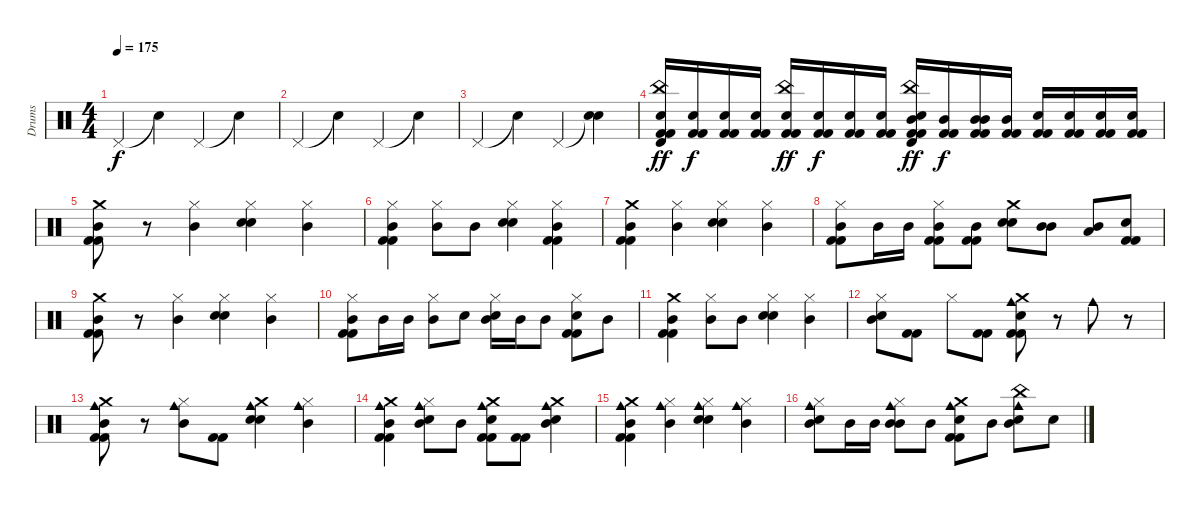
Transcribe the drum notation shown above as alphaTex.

\track ("Drums" "Drums") {instrument percussion}
\staff {score}
\articulation defaults
\ts (4 4)
\tempo 175
\clef neutral
\ks c "Pedal Hi-Hat (hit)".4{dy f} "Snare (hit)"{t}.4 "Pedal Hi-Hat (hit)".4 "Snare (hit)"{t}.4
|
"Pedal Hi-Hat (hit)".4 "Snare (hit)"{t}.4 "Pedal Hi-Hat (hit)".4 "Snare (hit)"{t}.4 |
"Pedal Hi-Hat (hit)".4 "Snare (hit)"{t}.4 "Pedal Hi-Hat (hit)".4 ("Snare (hit)"{t} "Electric Snare (hit)").4 |
("China (hit)" "Timbale high (hit)" "Electric Snare (hit)" "Kick (hit) 2" "Kick (hit) 2").16{dy ff} ("Electric Snare (hit)" "Kick (hit) 2" "Kick (hit) 2").16{dy f} ("Electric Snare (hit)" "Kick (hit) 2" "Kick (hit) 2").16 ("Electric Snare (hit)" "Kick (hit) 2" "Kick (hit) 2").16 ("China (hit)" "Snare (hit) 2" "Kick (hit) 2" "Kick (hit) 2").16{dy ff} ("Snare (hit) 2" "Kick (hit) 2" "Kick (hit) 2").16{dy f} ("Snare (hit) 2" "Kick (hit) 2" "Kick (hit) 2").16 ("Snare (hit) 2" "Kick (hit) 2" "Kick (hit) 2").16 ("China (hit)" "Timbale high (hit)" "Snare (hit) 2" "Mid Tom (hit)" "Kick (hit) 2" "Kick (hit) 2").16{dy ff} ("Mid Tom (hit)" "Kick (hit) 2" "Kick (hit) 2").16{dy f} ("Mid Tom (hit)" "Mid Tom (hit)" "Kick (hit) 2" "Kick (hit) 2").16 ("Mid Tom (hit)" "Kick (hit) 2" "Kick (hit) 2").16 ("Electric Snare (hit)" "Kick (hit) 2" "Kick (hit) 2").16 ("Electric Snare (hit)" "Kick (hit) 2" "Kick (hit) 2").16 ("Electric Snare (hit)" "Kick (hit) 2" "Kick (hit) 2").16 ("Electric Snare (hit)" "Kick (hit) 2" "Kick (hit) 2").16 |
("Crash medium (hit)" "Mid Tom (hit)" "Kick (hit) 2" "Kick (hit) 2").8 r.8 ("Hi-Hat (closed)" "Mid Tom (hit)").4 ("Hi-Hat (closed)" "Electric Snare (hit)" "Snare (hit) 2").4 ("Hi-Hat (closed)" "Mid Tom (hit)").4 |
("Hi-Hat (closed)" "Mid Tom (hit)" "Kick (hit) 2" "Kick (hit) 2").4 ("Hi-Hat (closed)" "Mid Tom (hit)").8 "Mid Tom (hit)".8 ("Hi-Hat (closed)" "Electric Snare (hit)" "Snare (hit) 2").4 ("Hi-Hat (closed)" "Mid Tom (hit)" "Kick (hit) 2" "Kick (hit) 2").4 |
("Crash medium (hit)" "Mid Tom (hit)" "Kick (hit) 2" "Kick (hit) 2").4 ("Hi-Hat (closed)" "Mid Tom (hit)").4 ("Hi-Hat (closed)" "Electric Snare (hit)" "Snare (hit) 2").4 ("Hi-Hat (closed)" "Mid Tom (hit)").4 |
("Hi-Hat (closed)" "Mid Tom (hit)" "Kick (hit) 2" "Kick (hit) 2").8 "Mid Tom (hit)".16 "Mid Tom (hit)".16 ("Hi-Hat (closed)" "Mid Tom (hit)" "Kick (hit) 2" "Kick (hit) 2").8 ("Mid Tom (hit)" "Kick (hit) 2" "Kick (hit) 2").8 ("Crash medium (hit)" "Electric Snare (hit)" "Snare (hit) 2").8 ("Mid Tom (hit)" "Mid Tom (hit)").8 ("Mid Tom (hit)" "Low Tom (hit)").8 ("Electric Snare (hit)" "Kick (hit) 2" "Kick (hit) 2").8 |
("Crash medium (hit)" "Mid Tom (hit)" "Kick (hit) 2" "Kick (hit) 2").8 r.8 ("Hi-Hat (closed)" "Mid Tom (hit)").4 ("Hi-Hat (closed)" "Electric Snare (hit)" "Snare (hit) 2").4 ("Hi-Hat (closed)" "Mid Tom (hit)").4 |
("Hi-Hat (closed)" "Mid Tom (hit)" "Kick (hit) 2" "Kick (hit) 2").8 "Mid Tom (hit)".16 "Mid Tom (hit)".16 ("Hi-Hat (closed)" "Mid Tom (hit)").8 "Electric Snare (hit)".8 ("Hi-Hat (closed)" "Mid Tom (hit)" "Snare (hit) 2").16 "Mid Tom (hit)".16 "Mid Tom (hit)".8 ("Hi-Hat (closed)" "Electric Snare (hit)" "Kick (hit) 2" "Kick (hit) 2").8 "Mid Tom (hit)".8 |
("Crash medium (hit)" "Mid Tom (hit)" "Kick (hit) 2" "Kick (hit) 2").4 ("Hi-Hat (closed)" "Mid Tom (hit)").8 "Mid Tom (hit)".8 ("Hi-Hat (closed)" "Electric Snare (hit)" "Snare (hit) 2").4 ("Hi-Hat (closed)" "Mid Tom (hit)").4 |
("Hi-Hat (closed)" "Mid Tom (hit)" "Snare (hit) 2").8 ("Kick (hit) 2" "Kick (hit) 2").8 "Hi-Hat (closed)".8 ("Kick (hit) 2" "Kick (hit) 2").8 ("Crash medium (hit)" "Electric Snare (hit)" "Cowbell medium (hit)" "Kick (hit) 2" "Kick (hit) 2").8 r.8 "Cowbell medium (hit)".8 r.8 |
("Crash medium (hit)" "Mid Tom (hit)" "Cowbell medium (hit)" "Kick (hit) 2" "Kick (hit) 2").8 r.8 ("Hi-Hat (closed)" "Mid Tom (hit)" "Cowbell medium (hit)").8 ("Kick (hit) 2" "Kick (hit) 2").8 ("Crash medium (hit)" "Electric Snare (hit)" "Snare (hit) 2" "Cowbell medium (hit)").4 ("Hi-Hat (closed)" "Mid Tom (hit)" "Cowbell medium (hit)").4 |
("Crash medium (hit)" "Mid Tom (hit)" "Cowbell medium (hit)" "Kick (hit) 2" "Kick (hit) 2").4 ("Hi-Hat (closed)" "Mid Tom (hit)" "Snare (hit) 2" "Cowbell medium (hit)").8 "Mid Tom (hit)".8 ("Crash medium (hit)" "Electric Snare (hit)" "Cowbell medium (hit)" "Kick (hit) 2" "Kick (hit) 2").8 ("Kick (hit) 2" "Kick (hit) 2").8 ("Crash medium (hit)" "Mid Tom (hit)" "Snare (hit) 2" "Cowbell medium (hit)").4 |
("Crash medium (hit)" "Mid Tom (hit)" "Cowbell medium (hit)" "Kick (hit) 2" "Kick (hit) 2").4 ("Hi-Hat (closed)" "Mid Tom (hit)" "Cowbell medium (hit)").4 ("Hi-Hat (closed)" "Electric Snare (hit)" "Snare (hit) 2" "Cowbell medium (hit)").4 ("Hi-Hat (closed)" "Mid Tom (hit)" "Cowbell medium (hit)").4 |
("Hi-Hat (closed)" "Mid Tom (hit)" "Snare (hit) 2" "Cowbell medium (hit)").8 "Mid Tom (hit)".16 "Mid Tom (hit)".16 ("Hi-Hat (closed)" "Mid Tom (hit)" "Mid Tom (hit)" "Cowbell medium (hit)").8 "Mid Tom (hit)".8 ("Crash medium (hit)" "Electric Snare (hit)" "Cowbell medium (hit)" "Kick (hit) 2" "Kick (hit) 2").8 "Mid Tom (hit)".8 ("China (hit)" "Mid Tom (hit)" "Snare (hit) 2" "Cowbell medium (hit)").8 "Electric Snare (hit)".8
